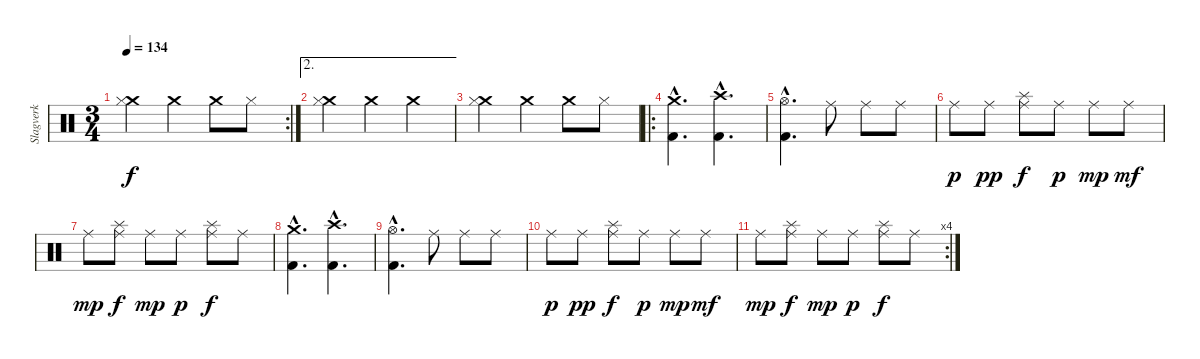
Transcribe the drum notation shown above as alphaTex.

\track ("Slagverk" "Slagverk") {instrument percussion}
\staff {score}
\articulation defaults
\rc 2
\ts (3 4)
\tempo 134
\clef neutral
\ks c
("Crash medium (hit)" "Hi-Hat (closed)").4{dy f} "Crash medium (hit)".4 "Crash medium (hit)".8 "Hi-Hat (closed)".8 |
\ae 2
("Crash medium (hit)" "Hi-Hat (closed)").4 "Crash medium (hit)".4 "Crash medium (hit)".4 |
("Crash medium (hit)" "Hi-Hat (closed)").4 "Crash medium (hit)".4 "Crash medium (hit)".8 "Hi-Hat (closed)".8 |
\ro
("Kick (hit) 2"{hac} "Crash medium (hit)"{hac}).4{d} ("Kick (hit) 2"{hac} "Crash high (hit)"{hac}).4{d} |
("Kick (hit) 2"{hac} "Hi-Hat (open)"{hac}).4{d} "Ride (middle)".8 "Ride (middle)".8 "Ride (middle)".8 |
"Ride (middle)".8{dy p} "Ride (middle)".8{dy pp} ("Ride (middle)" "Splash (hit)").8{dy f} "Ride (middle)".8{dy p} "Ride (middle)".8{dy mp} "Ride (middle)".8{dy mf} |
"Ride (middle)".8{dy mp} ("Ride (middle)" "Splash (hit)").8{dy f} "Ride (middle)".8{dy mp} "Ride (middle)".8{dy p} ("Ride (middle)" "Splash (hit)").8{dy f} "Ride (middle)".8 |
("Kick (hit) 2"{hac} "Crash medium (hit)"{hac}).4{d} ("Kick (hit) 2"{hac} "Crash high (hit)"{hac}).4{d} |
("Kick (hit) 2"{hac} "Hi-Hat (open)"{hac}).4{d} "Ride (middle)".8 "Ride (middle)".8 "Ride (middle)".8 |
"Ride (middle)".8{dy p} "Ride (middle)".8{dy pp} ("Ride (middle)" "Splash (hit)").8{dy f} "Ride (middle)".8{dy p} "Ride (middle)".8{dy mp} "Ride (middle)".8{dy mf} |
\rc 4 "Ride (middle)".8{dy mp}
("Ride (middle)" "Splash (hit)").8{dy f} "Ride (middle)".8{dy mp} "Ride (middle)".8{dy p} ("Ride (middle)" "Splash (hit)").8{dy f} "Ride (middle)".8
